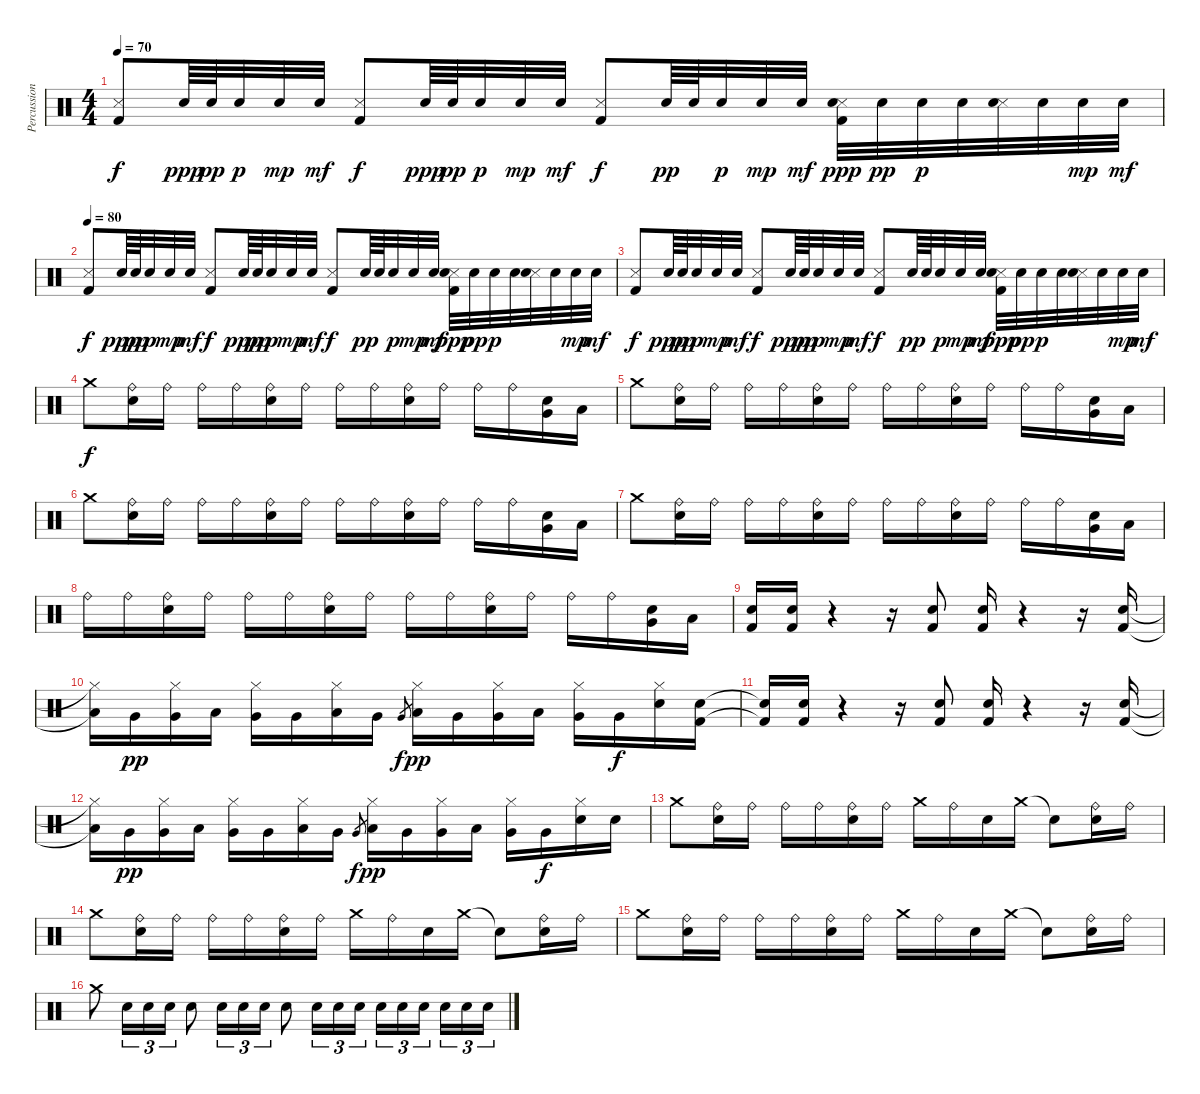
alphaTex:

\track ("Percussions" "Percussion") {instrument percussion}
\staff {score}
\articulation defaults
\ts (4 4)
\tempo 70
\clef neutral
\ks c
("Snare (side stick) 3" "Kick (hit) 2").8{dy f} "Snare (hit) 2".64{dy ppp} "Snare (hit) 2".64{dy pp} "Snare (hit) 2".32{dy p} "Snare (hit) 2".32{dy mp} "Snare (hit) 2".32{dy mf} ("Snare (side stick) 3" "Kick (hit) 2").8{dy f} "Snare (hit) 2".64{dy ppp} "Snare (hit) 2".64{dy pp} "Snare (hit) 2".32{dy p} "Snare (hit) 2".32{dy mp} "Snare (hit) 2".32{dy mf} ("Snare (side stick) 3" "Kick (hit) 2").8{dy f} "Snare (hit) 2".64{dy pp} "Snare (hit) 2".64 "Snare (hit) 2".32{dy p} "Snare (hit) 2".32{dy mp} "Snare (hit) 2".32{dy mf} ("Snare (side stick) 3" "Snare (hit) 2" "Kick (hit) 2").32{dy ppp} "Snare (hit) 2".32{dy pp} "Snare (hit) 2".32{dy p} "Snare (hit) 2".32 ("Snare (side stick) 3" "Snare (hit) 2").32 "Snare (hit) 2".32 "Snare (hit) 2".32{dy mp} "Snare (hit) 2".32{dy mf} |
\tempo 80
("Snare (side stick) 3" "Kick (hit) 2").8{dy f} "Snare (hit) 2".64{dy ppp} "Snare (hit) 2".64{dy pp} "Snare (hit) 2".32{dy p} "Snare (hit) 2".32{dy mp} "Snare (hit) 2".32{dy mf} ("Snare (side stick) 3" "Kick (hit) 2").8{dy f} "Snare (hit) 2".64{dy ppp} "Snare (hit) 2".64{dy pp} "Snare (hit) 2".32{dy p} "Snare (hit) 2".32{dy mp} "Snare (hit) 2".32{dy mf} ("Snare (side stick) 3" "Kick (hit) 2").8{dy f} "Snare (hit) 2".64{dy pp} "Snare (hit) 2".64 "Snare (hit) 2".32{dy p} "Snare (hit) 2".32{dy mp} "Snare (hit) 2".32{dy mf} ("Snare (side stick) 3" "Snare (hit) 2" "Kick (hit) 2").32{dy ppp} "Snare (hit) 2".32{dy pp} "Snare (hit) 2".32{dy p} "Snare (hit) 2".32 ("Snare (side stick) 3" "Snare (hit) 2").32 "Snare (hit) 2".32 "Snare (hit) 2".32{dy mp} "Snare (hit) 2".32{dy mf} |
("Snare (side stick) 3" "Kick (hit) 2").8{dy f} "Snare (hit) 2".64{dy ppp} "Snare (hit) 2".64{dy pp} "Snare (hit) 2".32{dy p} "Snare (hit) 2".32{dy mp} "Snare (hit) 2".32{dy mf} ("Snare (side stick) 3" "Kick (hit) 2").8{dy f} "Snare (hit) 2".64{dy ppp} "Snare (hit) 2".64{dy pp} "Snare (hit) 2".32{dy p} "Snare (hit) 2".32{dy mp} "Snare (hit) 2".32{dy mf} ("Snare (side stick) 3" "Kick (hit) 2").8{dy f} "Snare (hit) 2".64{dy pp} "Snare (hit) 2".64 "Snare (hit) 2".32{dy p} "Snare (hit) 2".32{dy mp} "Snare (hit) 2".32{dy mf} ("Snare (side stick) 3" "Snare (hit) 2" "Kick (hit) 2").32{dy ppp} "Snare (hit) 2".32{dy pp} "Snare (hit) 2".32{dy p} "Snare (hit) 2".32 ("Snare (side stick) 3" "Snare (hit) 2").32 "Snare (hit) 2".32 "Snare (hit) 2".32{dy mp} "Snare (hit) 2".32{dy mf} |
"Crash medium (hit)".8{dy f} ("Snare (hit) 2" "Ride (bell)").16 "Ride (bell)".16 "Ride (bell)".16 "Ride (bell)".16 ("Snare (hit) 2" "Ride (bell)").16 "Ride (bell)".16 "Ride (bell)".16 "Ride (bell)".16 ("Snare (hit) 2" "Ride (bell)").16 "Ride (bell)".16 "Ride (bell)".16 "Ride (bell)".16 ("Snare (hit) 2" "Very Low Tom (hit)").16 "Low Floor Tom (hit)".16 |
"Crash medium (hit)".8 ("Snare (hit) 2" "Ride (bell)").16 "Ride (bell)".16 "Ride (bell)".16 "Ride (bell)".16 ("Snare (hit) 2" "Ride (bell)").16 "Ride (bell)".16 "Ride (bell)".16 "Ride (bell)".16 ("Snare (hit) 2" "Ride (bell)").16 "Ride (bell)".16 "Ride (bell)".16 "Ride (bell)".16 ("Snare (hit) 2" "Very Low Tom (hit)").16 "Low Floor Tom (hit)".16 |
"Crash medium (hit)".8 ("Snare (hit) 2" "Ride (bell)").16 "Ride (bell)".16 "Ride (bell)".16 "Ride (bell)".16 ("Snare (hit) 2" "Ride (bell)").16 "Ride (bell)".16 "Ride (bell)".16 "Ride (bell)".16 ("Snare (hit) 2" "Ride (bell)").16 "Ride (bell)".16 "Ride (bell)".16 "Ride (bell)".16 ("Snare (hit) 2" "Very Low Tom (hit)").16 "Low Floor Tom (hit)".16 |
"Crash medium (hit)".8 ("Snare (hit) 2" "Ride (bell)").16 "Ride (bell)".16 "Ride (bell)".16 "Ride (bell)".16 ("Snare (hit) 2" "Ride (bell)").16 "Ride (bell)".16 "Ride (bell)".16 "Ride (bell)".16 ("Snare (hit) 2" "Ride (bell)").16 "Ride (bell)".16 "Ride (bell)".16 "Ride (bell)".16 ("Snare (hit) 2" "Very Low Tom (hit)").16 "Low Floor Tom (hit)".16 |
"Ride (bell)".16 "Ride (bell)".16 ("Snare (hit) 2" "Ride (bell)").16 "Ride (bell)".16 "Ride (bell)".16 "Ride (bell)".16 ("Snare (hit) 2" "Ride (bell)").16 "Ride (bell)".16 "Ride (bell)".16 "Ride (bell)".16 ("Snare (hit) 2" "Ride (bell)").16 "Ride (bell)".16 "Ride (bell)".16 "Ride (bell)".16 ("Snare (hit) 2" "Very Low Tom (hit)").16 "Low Floor Tom (hit)".16 |
("Snare (hit) 2" "Kick (hit) 2").16 ("Snare (hit) 2" "Kick (hit) 2").16 r.4 r.16 ("Snare (hit) 2" "Kick (hit) 2").8 ("Kick (hit) 2" "Snare (hit) 2").16 r.4 r.16 ("Snare (hit) 2" "Kick (hit) 2").16 |
("Hi-Hat (closed)"{t} "Low Tom (hit)"{t}).16 "Very Low Tom (hit)".16{dy pp} ("Hi-Hat (closed)" "Very Low Tom (hit)").16 "Low Tom (hit)".16 ("Hi-Hat (closed)" "Very Low Tom (hit)").16 "Very Low Tom (hit)".16 ("Hi-Hat (closed)" "Low Tom (hit)").16 "Very Low Tom (hit)".16 "Very Low Tom (hit)".8{gr dy f} ("Hi-Hat (closed)" "Low Tom (hit)").16{dy pp} "Very Low Tom (hit)".16 ("Hi-Hat (closed)" "Very Low Tom (hit)").16 "Low Tom (hit)".16 ("Hi-Hat (closed)" "Very Low Tom (hit)").16 "Very Low Tom (hit)".16{dy f} ("Hi-Hat (closed)" "Snare (hit) 2").16 ("Snare (hit) 2" "Kick (hit) 2").16 |
("Snare (hit) 2"{t} "Kick (hit) 2"{t}).16 ("Snare (hit) 2" "Kick (hit) 2").16 r.4 r.16 ("Snare (hit) 2" "Kick (hit) 2").8 ("Kick (hit) 2" "Snare (hit) 2").16 r.4 r.16 ("Snare (hit) 2" "Kick (hit) 2").16 |
("Hi-Hat (closed)"{t} "Low Tom (hit)"{t}).16 "Very Low Tom (hit)".16{dy pp} ("Hi-Hat (closed)" "Very Low Tom (hit)").16 "Low Tom (hit)".16 ("Hi-Hat (closed)" "Very Low Tom (hit)").16 "Very Low Tom (hit)".16 ("Hi-Hat (closed)" "Low Tom (hit)").16 "Very Low Tom (hit)".16 "Very Low Tom (hit)".8{gr dy f} ("Hi-Hat (closed)" "Low Tom (hit)").16{dy pp} "Very Low Tom (hit)".16 ("Hi-Hat (closed)" "Very Low Tom (hit)").16 "Low Tom (hit)".16 ("Hi-Hat (closed)" "Very Low Tom (hit)").16 "Very Low Tom (hit)".16{dy f} ("Hi-Hat (closed)" "Snare (hit) 2").16 "Snare (hit) 2".16 |
"Crash medium (hit)".8 ("Snare (hit) 2" "Ride (bell)").16 "Ride (bell)".16 "Ride (bell)".16 "Ride (bell)".16 ("Snare (hit) 2" "Ride (bell)").16 "Ride (bell)".16 "Crash medium (hit)".16 "Ride (bell)".16 "Snare (hit) 2".16 "Crash medium (hit)".16 "Snare (hit)"{t}.8 ("Snare (hit) 2" "Ride (bell)").16 "Ride (bell)".16 |
"Crash medium (hit)".8 ("Snare (hit) 2" "Ride (bell)").16 "Ride (bell)".16 "Ride (bell)".16 "Ride (bell)".16 ("Snare (hit) 2" "Ride (bell)").16 "Ride (bell)".16 "Crash medium (hit)".16 "Ride (bell)".16 "Snare (hit) 2".16 "Crash medium (hit)".16 "Snare (hit)"{t}.8 ("Snare (hit) 2" "Ride (bell)").16 "Ride (bell)".16 |
"Crash medium (hit)".8 ("Snare (hit) 2" "Ride (bell)").16 "Ride (bell)".16 "Ride (bell)".16 "Ride (bell)".16 ("Snare (hit) 2" "Ride (bell)").16 "Ride (bell)".16 "Crash medium (hit)".16 "Ride (bell)".16 "Snare (hit) 2".16 "Crash medium (hit)".16 "Snare (hit)"{t}.8 ("Snare (hit) 2" "Ride (bell)").16 "Ride (bell)".16 |
"Crash medium (hit)".8 "Snare (hit) 2".16{tu (3 2)} "Snare (hit) 2".16{tu (3 2)} "Snare (hit) 2".16{tu (3 2)} "Snare (hit) 2".8 "Snare (hit) 2".16{tu (3 2)} "Snare (hit) 2".16{tu (3 2)} "Snare (hit) 2".16{tu (3 2)} "Snare (hit) 2".8 "Snare (hit) 2".16{tu (3 2)} "Snare (hit) 2".16{tu (3 2)} "Snare (hit) 2".16{tu (3 2)} "Snare (hit) 2".16{tu (3 2)} "Snare (hit) 2".16{tu (3 2)} "Snare (hit) 2".16{tu (3 2)} "Snare (hit) 2".16{tu (3 2)} "Snare (hit) 2".16{tu (3 2)} "Snare (hit) 2".16{tu (3 2)}
